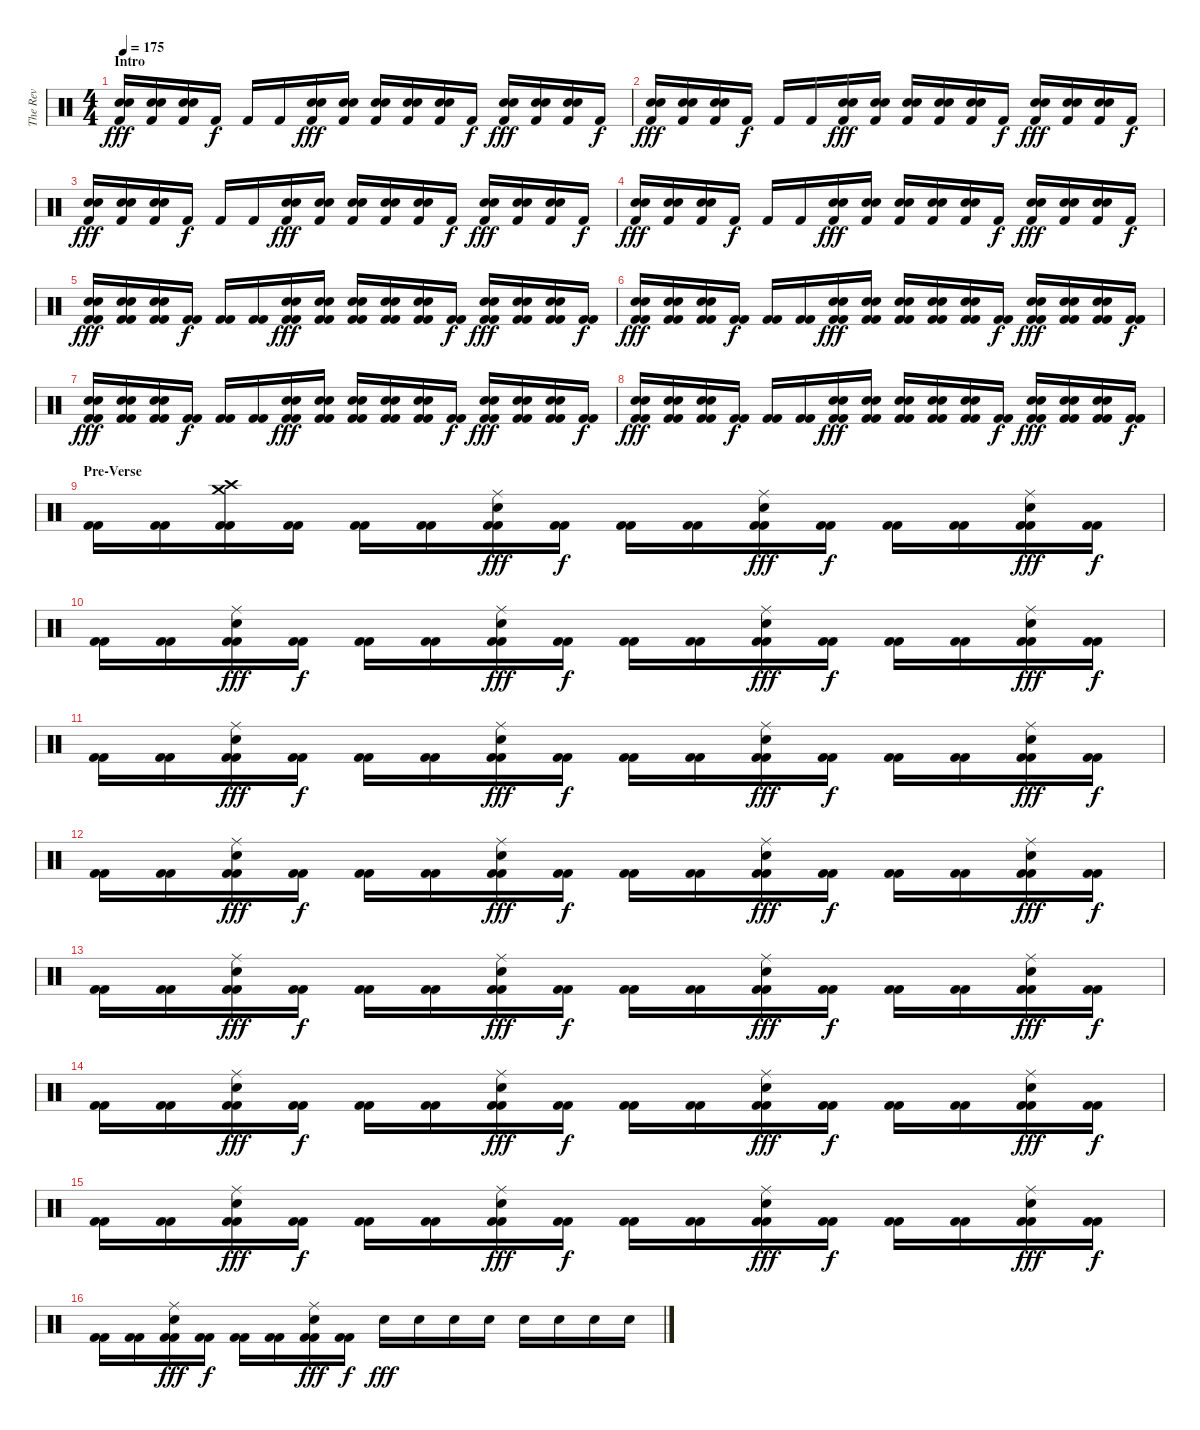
\track ("The Rev" "The Rev") {instrument percussion}
\staff {score}
\articulation defaults
\ts (4 4)
\section ("" "Intro")
\tempo 175
\clef neutral
\ks c
("Electric Snare (hit)" "Electric Snare (hit)" "Kick (hit) 2").16{dy fff} ("Electric Snare (hit)" "Electric Snare (hit)" "Kick (hit) 2").16 ("Electric Snare (hit)" "Electric Snare (hit)" "Kick (hit) 2").16 "Kick (hit) 2".16{dy f} "Kick (hit) 2".16 "Kick (hit) 2".16 ("Electric Snare (hit)" "Electric Snare (hit)" "Kick (hit) 2").16{dy fff} ("Electric Snare (hit)" "Electric Snare (hit)" "Kick (hit) 2").16 ("Electric Snare (hit)" "Electric Snare (hit)" "Kick (hit) 2").16 ("Electric Snare (hit)" "Electric Snare (hit)" "Kick (hit) 2").16 ("Electric Snare (hit)" "Electric Snare (hit)" "Kick (hit) 2").16 "Kick (hit) 2".16{dy f} ("Electric Snare (hit)" "Electric Snare (hit)" "Kick (hit) 2").16{dy fff} ("Electric Snare (hit)" "Electric Snare (hit)" "Kick (hit) 2").16 ("Electric Snare (hit)" "Electric Snare (hit)" "Kick (hit) 2").16 "Kick (hit) 2".16{dy f} |
("Electric Snare (hit)" "Electric Snare (hit)" "Kick (hit) 2").16{dy fff} ("Electric Snare (hit)" "Electric Snare (hit)" "Kick (hit) 2").16 ("Electric Snare (hit)" "Electric Snare (hit)" "Kick (hit) 2").16 "Kick (hit) 2".16{dy f} "Kick (hit) 2".16 "Kick (hit) 2".16 ("Electric Snare (hit)" "Electric Snare (hit)" "Kick (hit) 2").16{dy fff} ("Electric Snare (hit)" "Electric Snare (hit)" "Kick (hit) 2").16 ("Electric Snare (hit)" "Electric Snare (hit)" "Kick (hit) 2").16 ("Electric Snare (hit)" "Electric Snare (hit)" "Kick (hit) 2").16 ("Electric Snare (hit)" "Electric Snare (hit)" "Kick (hit) 2").16 "Kick (hit) 2".16{dy f} ("Electric Snare (hit)" "Electric Snare (hit)" "Kick (hit) 2").16{dy fff} ("Electric Snare (hit)" "Electric Snare (hit)" "Kick (hit) 2").16 ("Electric Snare (hit)" "Electric Snare (hit)" "Kick (hit) 2").16 "Kick (hit) 2".16{dy f} |
("Electric Snare (hit)" "Electric Snare (hit)" "Kick (hit) 2").16{dy fff} ("Electric Snare (hit)" "Electric Snare (hit)" "Kick (hit) 2").16 ("Electric Snare (hit)" "Electric Snare (hit)" "Kick (hit) 2").16 "Kick (hit) 2".16{dy f} "Kick (hit) 2".16 "Kick (hit) 2".16 ("Electric Snare (hit)" "Electric Snare (hit)" "Kick (hit) 2").16{dy fff} ("Electric Snare (hit)" "Electric Snare (hit)" "Kick (hit) 2").16 ("Electric Snare (hit)" "Electric Snare (hit)" "Kick (hit) 2").16 ("Electric Snare (hit)" "Electric Snare (hit)" "Kick (hit) 2").16 ("Electric Snare (hit)" "Electric Snare (hit)" "Kick (hit) 2").16 "Kick (hit) 2".16{dy f} ("Electric Snare (hit)" "Electric Snare (hit)" "Kick (hit) 2").16{dy fff} ("Electric Snare (hit)" "Electric Snare (hit)" "Kick (hit) 2").16 ("Electric Snare (hit)" "Electric Snare (hit)" "Kick (hit) 2").16 "Kick (hit) 2".16{dy f} |
("Electric Snare (hit)" "Electric Snare (hit)" "Kick (hit) 2").16{dy fff} ("Electric Snare (hit)" "Electric Snare (hit)" "Kick (hit) 2").16 ("Electric Snare (hit)" "Electric Snare (hit)" "Kick (hit) 2").16 "Kick (hit) 2".16{dy f} "Kick (hit) 2".16 "Kick (hit) 2".16 ("Electric Snare (hit)" "Electric Snare (hit)" "Kick (hit) 2").16{dy fff} ("Electric Snare (hit)" "Electric Snare (hit)" "Kick (hit) 2").16 ("Electric Snare (hit)" "Electric Snare (hit)" "Kick (hit) 2").16 ("Electric Snare (hit)" "Electric Snare (hit)" "Kick (hit) 2").16 ("Electric Snare (hit)" "Electric Snare (hit)" "Kick (hit) 2").16 "Kick (hit) 2".16{dy f} ("Electric Snare (hit)" "Electric Snare (hit)" "Kick (hit) 2").16{dy fff} ("Electric Snare (hit)" "Electric Snare (hit)" "Kick (hit) 2").16 ("Electric Snare (hit)" "Electric Snare (hit)" "Kick (hit) 2").16 "Kick (hit) 2".16{dy f} |
("Electric Snare (hit)" "Electric Snare (hit)" "Kick (hit) 2" "Kick (hit) 2").16{dy fff} ("Electric Snare (hit)" "Electric Snare (hit)" "Kick (hit) 2" "Kick (hit) 2").16 ("Electric Snare (hit)" "Electric Snare (hit)" "Kick (hit) 2" "Kick (hit) 2").16 ("Kick (hit) 2" "Kick (hit) 2").16{dy f} ("Kick (hit) 2" "Kick (hit) 2").16 ("Kick (hit) 2" "Kick (hit) 2").16 ("Electric Snare (hit)" "Electric Snare (hit)" "Kick (hit) 2" "Kick (hit) 2").16{dy fff} ("Electric Snare (hit)" "Electric Snare (hit)" "Kick (hit) 2" "Kick (hit) 2").16 ("Electric Snare (hit)" "Electric Snare (hit)" "Kick (hit) 2" "Kick (hit) 2").16 ("Electric Snare (hit)" "Electric Snare (hit)" "Kick (hit) 2" "Kick (hit) 2").16 ("Electric Snare (hit)" "Electric Snare (hit)" "Kick (hit) 2" "Kick (hit) 2").16 ("Kick (hit) 2" "Kick (hit) 2").16{dy f} ("Electric Snare (hit)" "Electric Snare (hit)" "Kick (hit) 2" "Kick (hit) 2").16{dy fff} ("Electric Snare (hit)" "Electric Snare (hit)" "Kick (hit) 2" "Kick (hit) 2").16 ("Electric Snare (hit)" "Electric Snare (hit)" "Kick (hit) 2" "Kick (hit) 2").16 ("Kick (hit) 2" "Kick (hit) 2").16{dy f} |
("Electric Snare (hit)" "Electric Snare (hit)" "Kick (hit) 2" "Kick (hit) 2").16{dy fff} ("Electric Snare (hit)" "Electric Snare (hit)" "Kick (hit) 2" "Kick (hit) 2").16 ("Electric Snare (hit)" "Electric Snare (hit)" "Kick (hit) 2" "Kick (hit) 2").16 ("Kick (hit) 2" "Kick (hit) 2").16{dy f} ("Kick (hit) 2" "Kick (hit) 2").16 ("Kick (hit) 2" "Kick (hit) 2").16 ("Electric Snare (hit)" "Electric Snare (hit)" "Kick (hit) 2" "Kick (hit) 2").16{dy fff} ("Electric Snare (hit)" "Electric Snare (hit)" "Kick (hit) 2" "Kick (hit) 2").16 ("Electric Snare (hit)" "Electric Snare (hit)" "Kick (hit) 2" "Kick (hit) 2").16 ("Electric Snare (hit)" "Electric Snare (hit)" "Kick (hit) 2" "Kick (hit) 2").16 ("Electric Snare (hit)" "Electric Snare (hit)" "Kick (hit) 2" "Kick (hit) 2").16 ("Kick (hit) 2" "Kick (hit) 2").16{dy f} ("Electric Snare (hit)" "Electric Snare (hit)" "Kick (hit) 2" "Kick (hit) 2").16{dy fff} ("Electric Snare (hit)" "Electric Snare (hit)" "Kick (hit) 2" "Kick (hit) 2").16 ("Electric Snare (hit)" "Electric Snare (hit)" "Kick (hit) 2" "Kick (hit) 2").16 ("Kick (hit) 2" "Kick (hit) 2").16{dy f} |
("Electric Snare (hit)" "Electric Snare (hit)" "Kick (hit) 2" "Kick (hit) 2").16{dy fff} ("Electric Snare (hit)" "Electric Snare (hit)" "Kick (hit) 2" "Kick (hit) 2").16 ("Electric Snare (hit)" "Electric Snare (hit)" "Kick (hit) 2" "Kick (hit) 2").16 ("Kick (hit) 2" "Kick (hit) 2").16{dy f} ("Kick (hit) 2" "Kick (hit) 2").16 ("Kick (hit) 2" "Kick (hit) 2").16 ("Electric Snare (hit)" "Electric Snare (hit)" "Kick (hit) 2" "Kick (hit) 2").16{dy fff} ("Electric Snare (hit)" "Electric Snare (hit)" "Kick (hit) 2" "Kick (hit) 2").16 ("Electric Snare (hit)" "Electric Snare (hit)" "Kick (hit) 2" "Kick (hit) 2").16 ("Electric Snare (hit)" "Electric Snare (hit)" "Kick (hit) 2" "Kick (hit) 2").16 ("Electric Snare (hit)" "Electric Snare (hit)" "Kick (hit) 2" "Kick (hit) 2").16 ("Kick (hit) 2" "Kick (hit) 2").16{dy f} ("Electric Snare (hit)" "Electric Snare (hit)" "Kick (hit) 2" "Kick (hit) 2").16{dy fff} ("Electric Snare (hit)" "Electric Snare (hit)" "Kick (hit) 2" "Kick (hit) 2").16 ("Electric Snare (hit)" "Electric Snare (hit)" "Kick (hit) 2" "Kick (hit) 2").16 ("Kick (hit) 2" "Kick (hit) 2").16{dy f} |
("Electric Snare (hit)" "Electric Snare (hit)" "Kick (hit) 2" "Kick (hit) 2").16{dy fff} ("Electric Snare (hit)" "Electric Snare (hit)" "Kick (hit) 2" "Kick (hit) 2").16 ("Electric Snare (hit)" "Electric Snare (hit)" "Kick (hit) 2" "Kick (hit) 2").16 ("Kick (hit) 2" "Kick (hit) 2").16{dy f} ("Kick (hit) 2" "Kick (hit) 2").16 ("Kick (hit) 2" "Kick (hit) 2").16 ("Electric Snare (hit)" "Electric Snare (hit)" "Kick (hit) 2" "Kick (hit) 2").16{dy fff} ("Electric Snare (hit)" "Electric Snare (hit)" "Kick (hit) 2" "Kick (hit) 2").16 ("Electric Snare (hit)" "Electric Snare (hit)" "Kick (hit) 2" "Kick (hit) 2").16 ("Electric Snare (hit)" "Electric Snare (hit)" "Kick (hit) 2" "Kick (hit) 2").16 ("Electric Snare (hit)" "Electric Snare (hit)" "Kick (hit) 2" "Kick (hit) 2").16 ("Kick (hit) 2" "Kick (hit) 2").16{dy f} ("Electric Snare (hit)" "Electric Snare (hit)" "Kick (hit) 2" "Kick (hit) 2").16{dy fff} ("Electric Snare (hit)" "Electric Snare (hit)" "Kick (hit) 2" "Kick (hit) 2").16 ("Electric Snare (hit)" "Electric Snare (hit)" "Kick (hit) 2" "Kick (hit) 2").16 ("Kick (hit) 2" "Kick (hit) 2").16{dy f} |
\section ("" "Pre-Verse")
("Kick (hit) 2" "Kick (hit) 2").16 ("Kick (hit) 2" "Kick (hit) 2").16 ("Crash medium (hit)" "Crash high (hit)" "Kick (hit) 2" "Kick (hit) 2").16 ("Kick (hit) 2" "Kick (hit) 2").16 ("Kick (hit) 2" "Kick (hit) 2").16 ("Kick (hit) 2" "Kick (hit) 2").16 ("Ride (middle)" "Electric Snare (hit)" "Kick (hit) 2" "Kick (hit) 2").16{dy fff} ("Kick (hit) 2" "Kick (hit) 2").16{dy f} ("Kick (hit) 2" "Kick (hit) 2").16 ("Kick (hit) 2" "Kick (hit) 2").16 ("Ride (middle)" "Electric Snare (hit)" "Kick (hit) 2" "Kick (hit) 2").16{dy fff} ("Kick (hit) 2" "Kick (hit) 2").16{dy f} ("Kick (hit) 2" "Kick (hit) 2").16 ("Kick (hit) 2" "Kick (hit) 2").16 ("Ride (middle)" "Electric Snare (hit)" "Kick (hit) 2" "Kick (hit) 2").16{dy fff} ("Kick (hit) 2" "Kick (hit) 2").16{dy f} |
("Kick (hit) 2" "Kick (hit) 2").16 ("Kick (hit) 2" "Kick (hit) 2").16 ("Ride (middle)" "Electric Snare (hit)" "Kick (hit) 2" "Kick (hit) 2").16{dy fff} ("Kick (hit) 2" "Kick (hit) 2").16{dy f} ("Kick (hit) 2" "Kick (hit) 2").16 ("Kick (hit) 2" "Kick (hit) 2").16 ("Ride (middle)" "Electric Snare (hit)" "Kick (hit) 2" "Kick (hit) 2").16{dy fff} ("Kick (hit) 2" "Kick (hit) 2").16{dy f} ("Kick (hit) 2" "Kick (hit) 2").16 ("Kick (hit) 2" "Kick (hit) 2").16 ("Ride (middle)" "Electric Snare (hit)" "Kick (hit) 2" "Kick (hit) 2").16{dy fff} ("Kick (hit) 2" "Kick (hit) 2").16{dy f} ("Kick (hit) 2" "Kick (hit) 2").16 ("Kick (hit) 2" "Kick (hit) 2").16 ("Ride (middle)" "Electric Snare (hit)" "Kick (hit) 2" "Kick (hit) 2").16{dy fff} ("Kick (hit) 2" "Kick (hit) 2").16{dy f} |
("Kick (hit) 2" "Kick (hit) 2").16 ("Kick (hit) 2" "Kick (hit) 2").16 ("Ride (middle)" "Electric Snare (hit)" "Kick (hit) 2" "Kick (hit) 2").16{dy fff} ("Kick (hit) 2" "Kick (hit) 2").16{dy f} ("Kick (hit) 2" "Kick (hit) 2").16 ("Kick (hit) 2" "Kick (hit) 2").16 ("Ride (middle)" "Electric Snare (hit)" "Kick (hit) 2" "Kick (hit) 2").16{dy fff} ("Kick (hit) 2" "Kick (hit) 2").16{dy f} ("Kick (hit) 2" "Kick (hit) 2").16 ("Kick (hit) 2" "Kick (hit) 2").16 ("Ride (middle)" "Electric Snare (hit)" "Kick (hit) 2" "Kick (hit) 2").16{dy fff} ("Kick (hit) 2" "Kick (hit) 2").16{dy f} ("Kick (hit) 2" "Kick (hit) 2").16 ("Kick (hit) 2" "Kick (hit) 2").16 ("Ride (middle)" "Electric Snare (hit)" "Kick (hit) 2" "Kick (hit) 2").16{dy fff} ("Kick (hit) 2" "Kick (hit) 2").16{dy f} |
("Kick (hit) 2" "Kick (hit) 2").16 ("Kick (hit) 2" "Kick (hit) 2").16 ("Ride (middle)" "Electric Snare (hit)" "Kick (hit) 2" "Kick (hit) 2").16{dy fff} ("Kick (hit) 2" "Kick (hit) 2").16{dy f} ("Kick (hit) 2" "Kick (hit) 2").16 ("Kick (hit) 2" "Kick (hit) 2").16 ("Ride (middle)" "Electric Snare (hit)" "Kick (hit) 2" "Kick (hit) 2").16{dy fff} ("Kick (hit) 2" "Kick (hit) 2").16{dy f} ("Kick (hit) 2" "Kick (hit) 2").16 ("Kick (hit) 2" "Kick (hit) 2").16 ("Ride (middle)" "Electric Snare (hit)" "Kick (hit) 2" "Kick (hit) 2").16{dy fff} ("Kick (hit) 2" "Kick (hit) 2").16{dy f} ("Kick (hit) 2" "Kick (hit) 2").16 ("Kick (hit) 2" "Kick (hit) 2").16 ("Ride (middle)" "Electric Snare (hit)" "Kick (hit) 2" "Kick (hit) 2").16{dy fff} ("Kick (hit) 2" "Kick (hit) 2").16{dy f} |
("Kick (hit) 2" "Kick (hit) 2").16 ("Kick (hit) 2" "Kick (hit) 2").16 ("Ride (middle)" "Electric Snare (hit)" "Kick (hit) 2" "Kick (hit) 2").16{dy fff} ("Kick (hit) 2" "Kick (hit) 2").16{dy f} ("Kick (hit) 2" "Kick (hit) 2").16 ("Kick (hit) 2" "Kick (hit) 2").16 ("Ride (middle)" "Electric Snare (hit)" "Kick (hit) 2" "Kick (hit) 2").16{dy fff} ("Kick (hit) 2" "Kick (hit) 2").16{dy f} ("Kick (hit) 2" "Kick (hit) 2").16 ("Kick (hit) 2" "Kick (hit) 2").16 ("Ride (middle)" "Electric Snare (hit)" "Kick (hit) 2" "Kick (hit) 2").16{dy fff} ("Kick (hit) 2" "Kick (hit) 2").16{dy f} ("Kick (hit) 2" "Kick (hit) 2").16 ("Kick (hit) 2" "Kick (hit) 2").16 ("Ride (middle)" "Electric Snare (hit)" "Kick (hit) 2" "Kick (hit) 2").16{dy fff} ("Kick (hit) 2" "Kick (hit) 2").16{dy f} |
("Kick (hit) 2" "Kick (hit) 2").16 ("Kick (hit) 2" "Kick (hit) 2").16 ("Ride (middle)" "Electric Snare (hit)" "Kick (hit) 2" "Kick (hit) 2").16{dy fff} ("Kick (hit) 2" "Kick (hit) 2").16{dy f} ("Kick (hit) 2" "Kick (hit) 2").16 ("Kick (hit) 2" "Kick (hit) 2").16 ("Ride (middle)" "Electric Snare (hit)" "Kick (hit) 2" "Kick (hit) 2").16{dy fff} ("Kick (hit) 2" "Kick (hit) 2").16{dy f} ("Kick (hit) 2" "Kick (hit) 2").16 ("Kick (hit) 2" "Kick (hit) 2").16 ("Ride (middle)" "Electric Snare (hit)" "Kick (hit) 2" "Kick (hit) 2").16{dy fff} ("Kick (hit) 2" "Kick (hit) 2").16{dy f} ("Kick (hit) 2" "Kick (hit) 2").16 ("Kick (hit) 2" "Kick (hit) 2").16 ("Ride (middle)" "Electric Snare (hit)" "Kick (hit) 2" "Kick (hit) 2").16{dy fff} ("Kick (hit) 2" "Kick (hit) 2").16{dy f} |
("Kick (hit) 2" "Kick (hit) 2").16 ("Kick (hit) 2" "Kick (hit) 2").16 ("Ride (middle)" "Electric Snare (hit)" "Kick (hit) 2" "Kick (hit) 2").16{dy fff} ("Kick (hit) 2" "Kick (hit) 2").16{dy f} ("Kick (hit) 2" "Kick (hit) 2").16 ("Kick (hit) 2" "Kick (hit) 2").16 ("Ride (middle)" "Electric Snare (hit)" "Kick (hit) 2" "Kick (hit) 2").16{dy fff} ("Kick (hit) 2" "Kick (hit) 2").16{dy f} ("Kick (hit) 2" "Kick (hit) 2").16 ("Kick (hit) 2" "Kick (hit) 2").16 ("Ride (middle)" "Electric Snare (hit)" "Kick (hit) 2" "Kick (hit) 2").16{dy fff} ("Kick (hit) 2" "Kick (hit) 2").16{dy f} ("Kick (hit) 2" "Kick (hit) 2").16 ("Kick (hit) 2" "Kick (hit) 2").16 ("Ride (middle)" "Electric Snare (hit)" "Kick (hit) 2" "Kick (hit) 2").16{dy fff} ("Kick (hit) 2" "Kick (hit) 2").16{dy f} |
("Kick (hit) 2" "Kick (hit) 2").16 ("Kick (hit) 2" "Kick (hit) 2").16 ("Ride (middle)" "Electric Snare (hit)" "Kick (hit) 2" "Kick (hit) 2").16{dy fff} ("Kick (hit) 2" "Kick (hit) 2").16{dy f} ("Kick (hit) 2" "Kick (hit) 2").16 ("Kick (hit) 2" "Kick (hit) 2").16 ("Ride (middle)" "Electric Snare (hit)" "Kick (hit) 2" "Kick (hit) 2").16{dy fff} ("Kick (hit) 2" "Kick (hit) 2").16{dy f} "Electric Snare (hit)".16{dy fff} "Electric Snare (hit)".16 "Electric Snare (hit)".16 "Electric Snare (hit)".16 "Electric Snare (hit)".16 "Electric Snare (hit)".16 "Electric Snare (hit)".16 "Electric Snare (hit)".16
